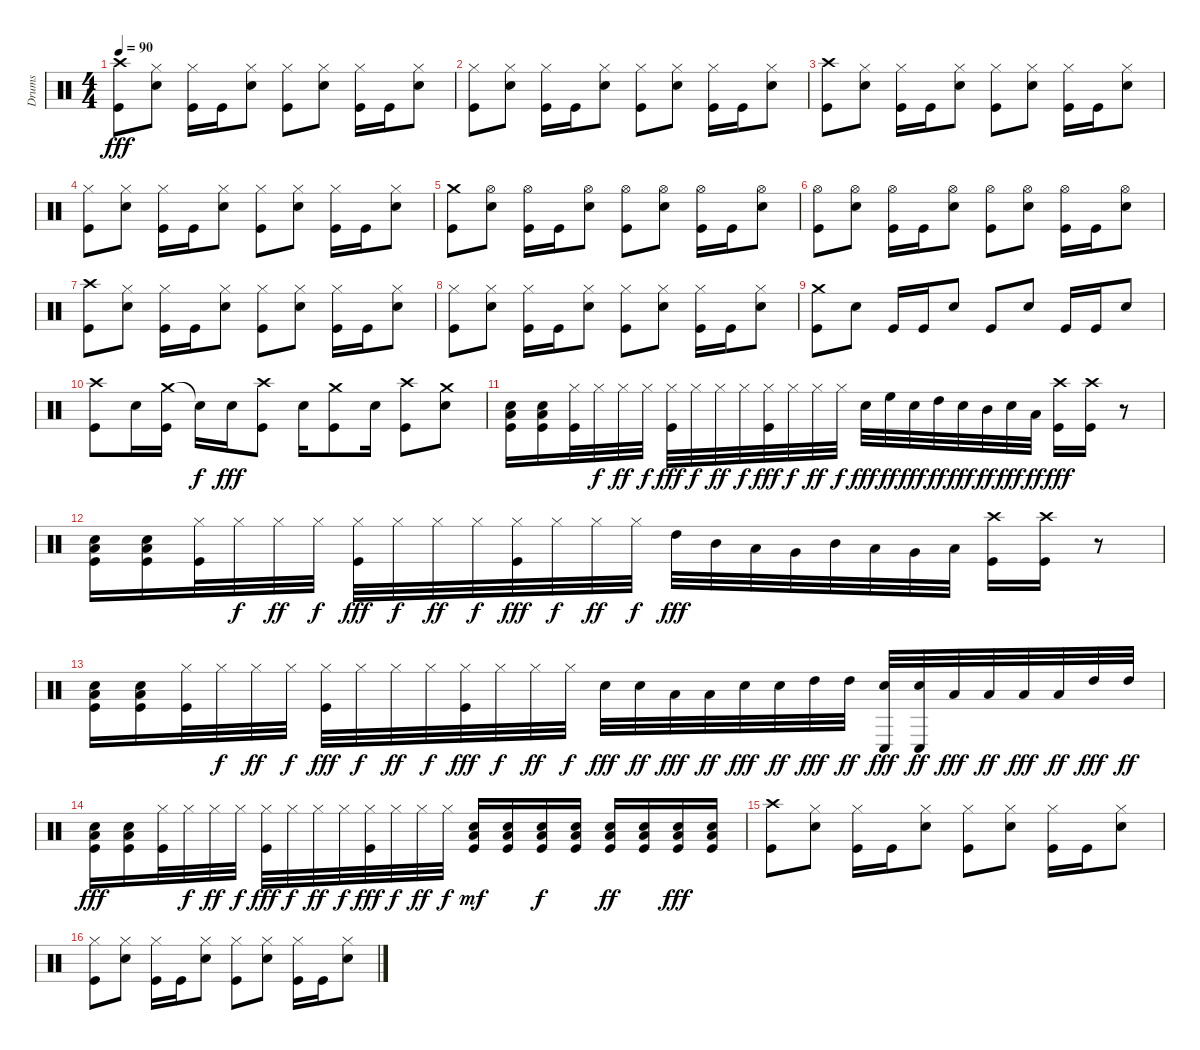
\track ("Drums" "Drums") {instrument percussion}
\staff {score}
\articulation defaults
\ts (4 4)
\tempo 90
\clef neutral
\ks c
("Crash high (hit)" "Kick (hit)").8{dy fff} ("Hi-Hat (closed)" "Snare (hit) 2").8 ("Hi-Hat (closed)" "Kick (hit)").16 "Kick (hit)".16 ("Hi-Hat (closed)" "Snare (hit) 2").8 ("Hi-Hat (closed)" "Kick (hit)").8 ("Hi-Hat (closed)" "Snare (hit) 2").8 ("Hi-Hat (closed)" "Kick (hit)").16 "Kick (hit)".16 ("Hi-Hat (closed)" "Snare (hit) 2").8 |
("Hi-Hat (closed)" "Kick (hit)").8 ("Hi-Hat (closed)" "Snare (hit) 2").8 ("Hi-Hat (closed)" "Kick (hit)").16 "Kick (hit)".16 ("Hi-Hat (closed)" "Snare (hit) 2").8 ("Hi-Hat (closed)" "Kick (hit)").8 ("Hi-Hat (closed)" "Snare (hit) 2").8 ("Hi-Hat (closed)" "Kick (hit)").16 "Kick (hit)".16 ("Hi-Hat (closed)" "Snare (hit) 2").8 |
("Crash high (hit)" "Kick (hit)").8 ("Hi-Hat (closed)" "Snare (hit) 2").8 ("Hi-Hat (closed)" "Kick (hit)").16 "Kick (hit)".16 ("Hi-Hat (closed)" "Snare (hit) 2").8 ("Hi-Hat (closed)" "Kick (hit)").8 ("Hi-Hat (closed)" "Snare (hit) 2").8 ("Hi-Hat (closed)" "Kick (hit)").16 "Kick (hit)".16 ("Hi-Hat (closed)" "Snare (hit) 2").8 |
("Hi-Hat (closed)" "Kick (hit)").8 ("Hi-Hat (closed)" "Snare (hit) 2").8 ("Hi-Hat (closed)" "Kick (hit)").16 "Kick (hit)".16 ("Hi-Hat (closed)" "Snare (hit) 2").8 ("Hi-Hat (closed)" "Kick (hit)").8 ("Hi-Hat (closed)" "Snare (hit) 2").8 ("Hi-Hat (closed)" "Kick (hit)").16 "Kick (hit)".16 ("Hi-Hat (closed)" "Snare (hit) 2").8 |
("Crash medium (hit)" "Kick (hit)").8 ("Hi-Hat (open)" "Snare (hit) 2").8 ("Hi-Hat (open)" "Kick (hit)").16 "Kick (hit)".16 ("Hi-Hat (open)" "Snare (hit) 2").8 ("Hi-Hat (open)" "Kick (hit)").8 ("Hi-Hat (open)" "Snare (hit) 2").8 ("Hi-Hat (open)" "Kick (hit)").16 "Kick (hit)".16 ("Hi-Hat (open)" "Snare (hit) 2").8 |
("Hi-Hat (open)" "Kick (hit)").8 ("Hi-Hat (open)" "Snare (hit) 2").8 ("Hi-Hat (open)" "Kick (hit)").16 "Kick (hit)".16 ("Hi-Hat (open)" "Snare (hit) 2").8 ("Hi-Hat (open)" "Kick (hit)").8 ("Hi-Hat (open)" "Snare (hit) 2").8 ("Hi-Hat (open)" "Kick (hit)").16 "Kick (hit)".16 ("Hi-Hat (open)" "Snare (hit) 2").8 |
("Crash high (hit)" "Kick (hit)").8 ("Hi-Hat (closed)" "Snare (hit) 2").8 ("Hi-Hat (closed)" "Kick (hit)").16 "Kick (hit)".16 ("Hi-Hat (closed)" "Snare (hit) 2").8 ("Hi-Hat (closed)" "Kick (hit)").8 ("Hi-Hat (closed)" "Snare (hit) 2").8 ("Hi-Hat (closed)" "Kick (hit)").16 "Kick (hit)".16 ("Hi-Hat (closed)" "Snare (hit) 2").8 |
("Hi-Hat (closed)" "Kick (hit)").8 ("Hi-Hat (closed)" "Snare (hit) 2").8 ("Hi-Hat (closed)" "Kick (hit)").16 "Kick (hit)".16 ("Hi-Hat (closed)" "Snare (hit) 2").8 ("Hi-Hat (closed)" "Kick (hit)").8 ("Hi-Hat (closed)" "Snare (hit) 2").8 ("Hi-Hat (closed)" "Kick (hit)").16 "Kick (hit)".16 ("Hi-Hat (closed)" "Snare (hit) 2").8 |
("Crash medium (hit)" "Kick (hit)").8 "Snare (hit) 2".8 "Kick (hit)".16 "Kick (hit)".16 "Snare (hit) 2".8 "Kick (hit)".8 "Snare (hit) 2".8 "Kick (hit)".16 "Kick (hit)".16 "Snare (hit) 2".8 |
("Crash high (hit)" "Kick (hit)").8 "Snare (hit) 2".16 ("Crash medium (hit)" "Kick (hit)").16 "Snare (hit)"{t}.16{dy f} "Snare (hit) 2".16{dy fff} ("Crash high (hit)" "Kick (hit)").8 "Snare (hit) 2".16 ("Crash medium (hit)" "Kick (hit)").8 "Snare (hit) 2".16 ("Crash high (hit)" "Kick (hit)").8 ("Crash medium (hit)" "Snare (hit) 2").8 |
("Low Floor Tom (hit)" "Snare (hit) 2" "Kick (hit)").16 ("Low Floor Tom (hit)" "Snare (hit) 2" "Kick (hit)").16 ("Hi-Hat (closed)" "Kick (hit)").32 "Hi-Hat (closed)".32{dy f} "Hi-Hat (closed)".32{dy ff} "Hi-Hat (closed)".32{dy f} ("Hi-Hat (closed)" "Kick (hit)").32{dy fff} "Hi-Hat (closed)".32{dy f} "Hi-Hat (closed)".32{dy ff} "Hi-Hat (closed)".32{dy f} ("Hi-Hat (closed)" "Kick (hit)").32{dy fff} "Hi-Hat (closed)".32{dy f} "Hi-Hat (closed)".32{dy ff} "Hi-Hat (closed)".32{dy f} "Snare (hit) 2".32{dy fff} "High Floor Tom (hit)".32{dy ff} "Snare (hit) 2".32{dy fff} "High Tom (hit)".32{dy ff} "Snare (hit) 2".32{dy fff} "Mid Tom (hit)".32{dy ff} "Snare (hit) 2".32{dy fff} "Low Tom (hit)".32{dy ff} ("Crash high (hit)" "Kick (hit)").16{dy fff} ("Crash high (hit)" "Kick (hit)").16 r.8 |
("Low Floor Tom (hit)" "Snare (hit) 2" "Kick (hit)").16 ("Low Floor Tom (hit)" "Snare (hit) 2" "Kick (hit)").16 ("Hi-Hat (closed)" "Kick (hit)").32 "Hi-Hat (closed)".32{dy f} "Hi-Hat (closed)".32{dy ff} "Hi-Hat (closed)".32{dy f} ("Hi-Hat (closed)" "Kick (hit)").32{dy fff} "Hi-Hat (closed)".32{dy f} "Hi-Hat (closed)".32{dy ff} "Hi-Hat (closed)".32{dy f} ("Hi-Hat (closed)" "Kick (hit)").32{dy fff} "Hi-Hat (closed)".32{dy f} "Hi-Hat (closed)".32{dy ff} "Hi-Hat (closed)".32{dy f} "High Tom (hit)".32{dy fff} "Mid Tom (hit)".32 "Low Tom (hit)".32 "Very Low Tom (hit)".32 "Mid Tom (hit)".32 "Low Tom (hit)".32 "Very Low Tom (hit)".32 "Low Floor Tom (hit)".32 ("Crash high (hit)" "Kick (hit)").16 ("Crash high (hit)" "Kick (hit)").16 r.8 |
("Low Floor Tom (hit)" "Snare (hit) 2" "Kick (hit)").16 ("Low Floor Tom (hit)" "Snare (hit) 2" "Kick (hit)").16 ("Hi-Hat (closed)" "Kick (hit)").32 "Hi-Hat (closed)".32{dy f} "Hi-Hat (closed)".32{dy ff} "Hi-Hat (closed)".32{dy f} ("Hi-Hat (closed)" "Kick (hit)").32{dy fff} "Hi-Hat (closed)".32{dy f} "Hi-Hat (closed)".32{dy ff} "Hi-Hat (closed)".32{dy f} ("Hi-Hat (closed)" "Kick (hit)").32{dy fff} "Hi-Hat (closed)".32{dy f} "Hi-Hat (closed)".32{dy ff} "Hi-Hat (closed)".32{dy f} "Snare (hit) 2".32{dy fff} "Snare (hit) 2".32{dy ff} "Low Floor Tom (hit)".32{dy fff} "Low Floor Tom (hit)".32{dy ff} "Snare (hit) 2".32{dy fff} "Snare (hit) 2".32{dy ff} "High Tom (hit)".32{dy fff} "High Tom (hit)".32{dy ff} ("Conga low (hit)" "Snare (hit) 2").32{dy fff} ("Conga low (hit)" "Snare (hit) 2").32{dy ff} "Low Floor Tom (hit)".32{dy fff} "Low Floor Tom (hit)".32{dy ff} "Low Tom (hit)".32{dy fff} "Low Tom (hit)".32{dy ff} "High Tom (hit)".32{dy fff} "High Tom (hit)".32{dy ff} |
("Low Floor Tom (hit)" "Snare (hit) 2" "Kick (hit)").16{dy fff} ("Low Floor Tom (hit)" "Snare (hit) 2" "Kick (hit)").16 ("Hi-Hat (closed)" "Kick (hit)").32 "Hi-Hat (closed)".32{dy f} "Hi-Hat (closed)".32{dy ff} "Hi-Hat (closed)".32{dy f} ("Hi-Hat (closed)" "Kick (hit)").32{dy fff} "Hi-Hat (closed)".32{dy f} "Hi-Hat (closed)".32{dy ff} "Hi-Hat (closed)".32{dy f} ("Hi-Hat (closed)" "Kick (hit)").32{dy fff} "Hi-Hat (closed)".32{dy f} "Hi-Hat (closed)".32{dy ff} "Hi-Hat (closed)".32{dy f} ("Low Tom (hit)" "Snare (hit) 2" "Kick (hit)").16{dy mf} ("Low Tom (hit)" "Snare (hit) 2" "Kick (hit)").16 ("Low Tom (hit)" "Snare (hit) 2" "Kick (hit)").16{dy f} ("Low Tom (hit)" "Snare (hit) 2" "Kick (hit)").16 ("Low Tom (hit)" "Snare (hit) 2" "Kick (hit)").16{dy ff} ("Low Tom (hit)" "Snare (hit) 2" "Kick (hit)").16 ("Low Tom (hit)" "Snare (hit) 2" "Kick (hit)").16{dy fff} ("Low Tom (hit)" "Snare (hit) 2" "Kick (hit)").16 |
("Crash high (hit)" "Kick (hit)").8 ("Hi-Hat (closed)" "Snare (hit) 2").8 ("Hi-Hat (closed)" "Kick (hit)").16 "Kick (hit)".16 ("Hi-Hat (closed)" "Snare (hit) 2").8 ("Hi-Hat (closed)" "Kick (hit)").8 ("Hi-Hat (closed)" "Snare (hit) 2").8 ("Hi-Hat (closed)" "Kick (hit)").16 "Kick (hit)".16 ("Hi-Hat (closed)" "Snare (hit) 2").8 |
("Hi-Hat (closed)" "Kick (hit)").8 ("Hi-Hat (closed)" "Snare (hit) 2").8 ("Hi-Hat (closed)" "Kick (hit)").16 "Kick (hit)".16 ("Hi-Hat (closed)" "Snare (hit) 2").8 ("Hi-Hat (closed)" "Kick (hit)").8 ("Hi-Hat (closed)" "Snare (hit) 2").8 ("Hi-Hat (closed)" "Kick (hit)").16 "Kick (hit)".16 ("Hi-Hat (closed)" "Snare (hit) 2").8
